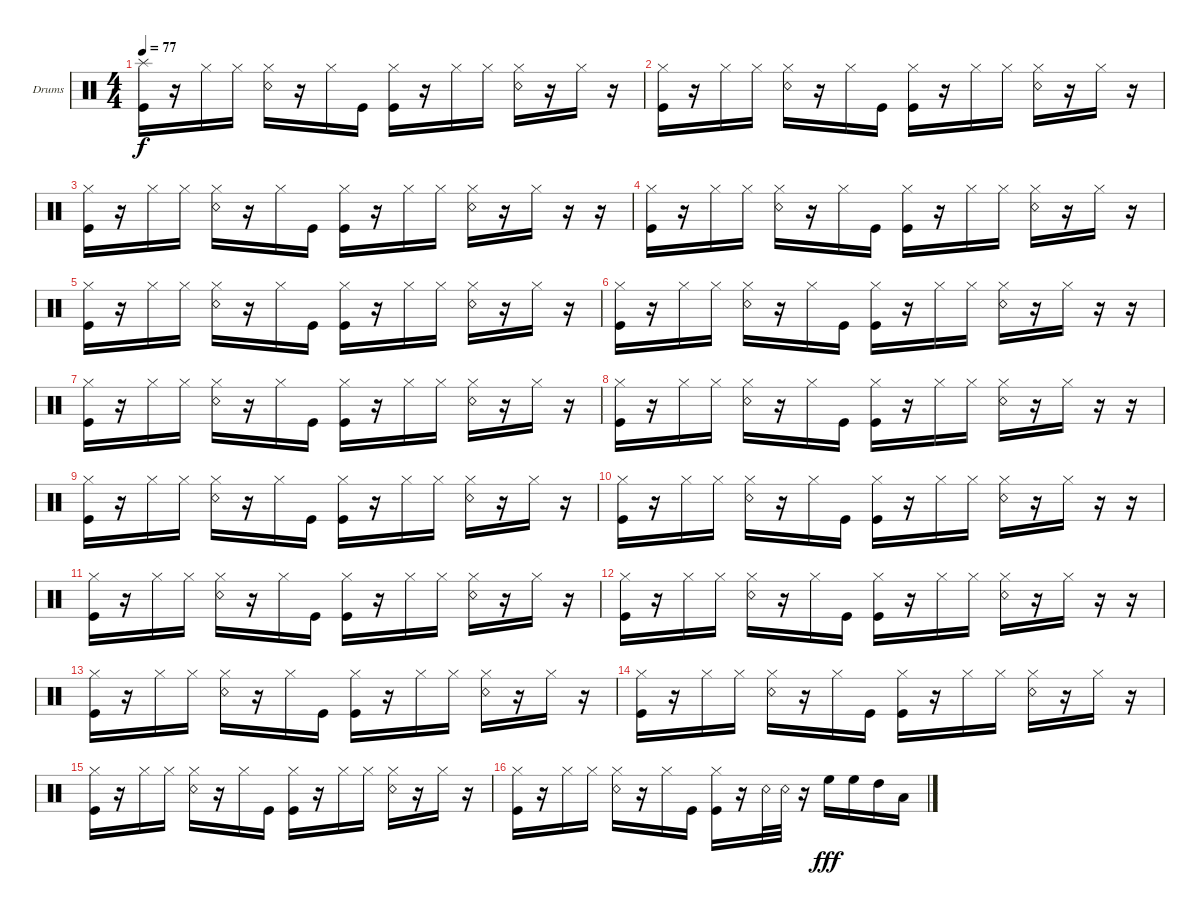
\defaultSystemsLayout 4
\bracketExtendMode groupsimilarinstruments
\firstSystemTrackNameOrientation horizontal
\otherSystemsTrackNameOrientation horizontal
\track ("Drumkit" "Drums") {instrument percussion}
\staff {score}
\articulation defaults
\ts (4 4)
\tempo 77
\clef neutral
\scale
0.333333
\ks c
("Kick (hit)" "Splash (hit)").16{dy f} r.16 "Hi-Hat (closed)".16 "Hi-Hat (closed)".16 ("Snare (rim shot)" "Hi-Hat (closed)").16 r.16 "Hi-Hat (closed)".16 "Kick (hit)".16 ("Kick (hit)" "Hi-Hat (closed)").16 r.16 "Hi-Hat (closed)".16 "Hi-Hat (closed)".16 ("Snare (rim shot)" "Hi-Hat (closed)").16 r.16 "Hi-Hat (closed)".16 r.16 |
\scale
0.333333 ("Kick (hit)" "Hi-Hat (closed)").16 r.16 "Hi-Hat (closed)".16 "Hi-Hat (closed)".16 ("Snare (rim shot)" "Hi-Hat (closed)").16 r.16 "Hi-Hat (closed)".16 "Kick (hit)".16 ("Kick (hit)" "Hi-Hat (closed)").16 r.16 "Hi-Hat (closed)".16 "Hi-Hat (closed)".16 ("Snare (rim shot)" "Hi-Hat (closed)").16 r.16 "Hi-Hat (closed)".16 r.16 |
\scale
0.333333 ("Kick (hit)" "Hi-Hat (closed)").16 r.16 "Hi-Hat (closed)".16 "Hi-Hat (closed)".16 ("Snare (rim shot)" "Hi-Hat (closed)").16 r.16 "Hi-Hat (closed)".16 "Kick (hit)".16 ("Kick (hit)" "Hi-Hat (closed)").16 r.16 "Hi-Hat (closed)".16 "Hi-Hat (closed)".16 ("Snare (rim shot)" "Hi-Hat (closed)").16 r.16 "Hi-Hat (closed)".16 r.16 r.16 |
\scale
0.333333 ("Kick (hit)" "Hi-Hat (closed)").16 r.16 "Hi-Hat (closed)".16 "Hi-Hat (closed)".16 ("Snare (rim shot)" "Hi-Hat (closed)").16 r.16 "Hi-Hat (closed)".16 "Kick (hit)".16 ("Kick (hit)" "Hi-Hat (closed)").16 r.16 "Hi-Hat (closed)".16 "Hi-Hat (closed)".16 ("Snare (rim shot)" "Hi-Hat (closed)").16 r.16 "Hi-Hat (closed)".16 r.16 |
\scale
0.333333 ("Kick (hit)" "Hi-Hat (closed)").16 r.16 "Hi-Hat (closed)".16 "Hi-Hat (closed)".16 ("Snare (rim shot)" "Hi-Hat (closed)").16 r.16 "Hi-Hat (closed)".16 "Kick (hit)".16 ("Kick (hit)" "Hi-Hat (closed)").16 r.16 "Hi-Hat (closed)".16 "Hi-Hat (closed)".16 ("Snare (rim shot)" "Hi-Hat (closed)").16 r.16 "Hi-Hat (closed)".16 r.16 |
\scale
0.333333 ("Kick (hit)" "Hi-Hat (closed)").16 r.16 "Hi-Hat (closed)".16 "Hi-Hat (closed)".16 ("Snare (rim shot)" "Hi-Hat (closed)").16 r.16 "Hi-Hat (closed)".16 "Kick (hit)".16 ("Kick (hit)" "Hi-Hat (closed)").16 r.16 "Hi-Hat (closed)".16 "Hi-Hat (closed)".16 ("Snare (rim shot)" "Hi-Hat (closed)").16 r.16 "Hi-Hat (closed)".16 r.16 r.16 |
\scale
0.333333 ("Kick (hit)" "Hi-Hat (closed)").16 r.16 "Hi-Hat (closed)".16 "Hi-Hat (closed)".16 ("Snare (rim shot)" "Hi-Hat (closed)").16 r.16 "Hi-Hat (closed)".16 "Kick (hit)".16 ("Kick (hit)" "Hi-Hat (closed)").16 r.16 "Hi-Hat (closed)".16 "Hi-Hat (closed)".16 ("Snare (rim shot)" "Hi-Hat (closed)").16 r.16 "Hi-Hat (closed)".16 r.16 |
\scale
0.333333 ("Kick (hit)" "Hi-Hat (closed)").16 r.16 "Hi-Hat (closed)".16 "Hi-Hat (closed)".16 ("Snare (rim shot)" "Hi-Hat (closed)").16 r.16 "Hi-Hat (closed)".16 "Kick (hit)".16 ("Kick (hit)" "Hi-Hat (closed)").16 r.16 "Hi-Hat (closed)".16 "Hi-Hat (closed)".16 ("Snare (rim shot)" "Hi-Hat (closed)").16 r.16 "Hi-Hat (closed)".16 r.16 r.16 |
\scale
0.333333 ("Kick (hit)" "Hi-Hat (closed)").16 r.16 "Hi-Hat (closed)".16 "Hi-Hat (closed)".16 ("Snare (rim shot)" "Hi-Hat (closed)").16 r.16 "Hi-Hat (closed)".16 "Kick (hit)".16 ("Kick (hit)" "Hi-Hat (closed)").16 r.16 "Hi-Hat (closed)".16 "Hi-Hat (closed)".16 ("Snare (rim shot)" "Hi-Hat (closed)").16 r.16 "Hi-Hat (closed)".16 r.16 |
\scale
0.333333 ("Kick (hit)" "Hi-Hat (closed)").16 r.16 "Hi-Hat (closed)".16 "Hi-Hat (closed)".16 ("Snare (rim shot)" "Hi-Hat (closed)").16 r.16 "Hi-Hat (closed)".16 "Kick (hit)".16 ("Kick (hit)" "Hi-Hat (closed)").16 r.16 "Hi-Hat (closed)".16 "Hi-Hat (closed)".16 ("Snare (rim shot)" "Hi-Hat (closed)").16 r.16 "Hi-Hat (closed)".16 r.16 r.16 |
\scale
0.333333 ("Kick (hit)" "Hi-Hat (closed)").16 r.16 "Hi-Hat (closed)".16 "Hi-Hat (closed)".16 ("Snare (rim shot)" "Hi-Hat (closed)").16 r.16 "Hi-Hat (closed)".16 "Kick (hit)".16 ("Kick (hit)" "Hi-Hat (closed)").16 r.16 "Hi-Hat (closed)".16 "Hi-Hat (closed)".16 ("Snare (rim shot)" "Hi-Hat (closed)").16 r.16 "Hi-Hat (closed)".16 r.16 |
\scale
0.333333 ("Kick (hit)" "Hi-Hat (closed)").16 r.16 "Hi-Hat (closed)".16 "Hi-Hat (closed)".16 ("Snare (rim shot)" "Hi-Hat (closed)").16 r.16 "Hi-Hat (closed)".16 "Kick (hit)".16 ("Kick (hit)" "Hi-Hat (closed)").16 r.16 "Hi-Hat (closed)".16 "Hi-Hat (closed)".16 ("Snare (rim shot)" "Hi-Hat (closed)").16 r.16 "Hi-Hat (closed)".16 r.16 r.16 |
\scale
0.333333 ("Kick (hit)" "Hi-Hat (closed)").16 r.16 "Hi-Hat (closed)".16 "Hi-Hat (closed)".16 ("Snare (rim shot)" "Hi-Hat (closed)").16 r.16 "Hi-Hat (closed)".16 "Kick (hit)".16 ("Kick (hit)" "Hi-Hat (closed)").16 r.16 "Hi-Hat (closed)".16 "Hi-Hat (closed)".16 ("Snare (rim shot)" "Hi-Hat (closed)").16 r.16 "Hi-Hat (closed)".16 r.16 |
\scale
0.333333 ("Kick (hit)" "Hi-Hat (closed)").16 r.16 "Hi-Hat (closed)".16 "Hi-Hat (closed)".16 ("Snare (rim shot)" "Hi-Hat (closed)").16 r.16 "Hi-Hat (closed)".16 "Kick (hit)".16 ("Kick (hit)" "Hi-Hat (closed)").16 r.16 "Hi-Hat (closed)".16 "Hi-Hat (closed)".16 ("Snare (rim shot)" "Hi-Hat (closed)").16 r.16 "Hi-Hat (closed)".16 r.16 |
\scale
0.333333 ("Kick (hit)" "Hi-Hat (closed)").16 r.16 "Hi-Hat (closed)".16 "Hi-Hat (closed)".16 ("Snare (rim shot)" "Hi-Hat (closed)").16 r.16 "Hi-Hat (closed)".16 "Kick (hit)".16 ("Kick (hit)" "Hi-Hat (closed)").16 r.16 "Hi-Hat (closed)".16 "Hi-Hat (closed)".16 ("Snare (rim shot)" "Hi-Hat (closed)").16 r.16 "Hi-Hat (closed)".16 r.16 |
\scale
0.333333 ("Kick (hit)" "Hi-Hat (closed)").16 r.16 "Hi-Hat (closed)".16 "Hi-Hat (closed)".16 ("Snare (rim shot)" "Hi-Hat (closed)").16 r.16 "Hi-Hat (closed)".16 "Kick (hit)".16 ("Kick (hit)" "Hi-Hat (closed)").16 r.16 "Snare (rim shot)".32 "Snare (rim shot)".32 r.16 "High Floor Tom (hit)".16{dy fff} "High Floor Tom (hit)".16 "High Tom (hit)".16 "Low Tom (hit)".16
